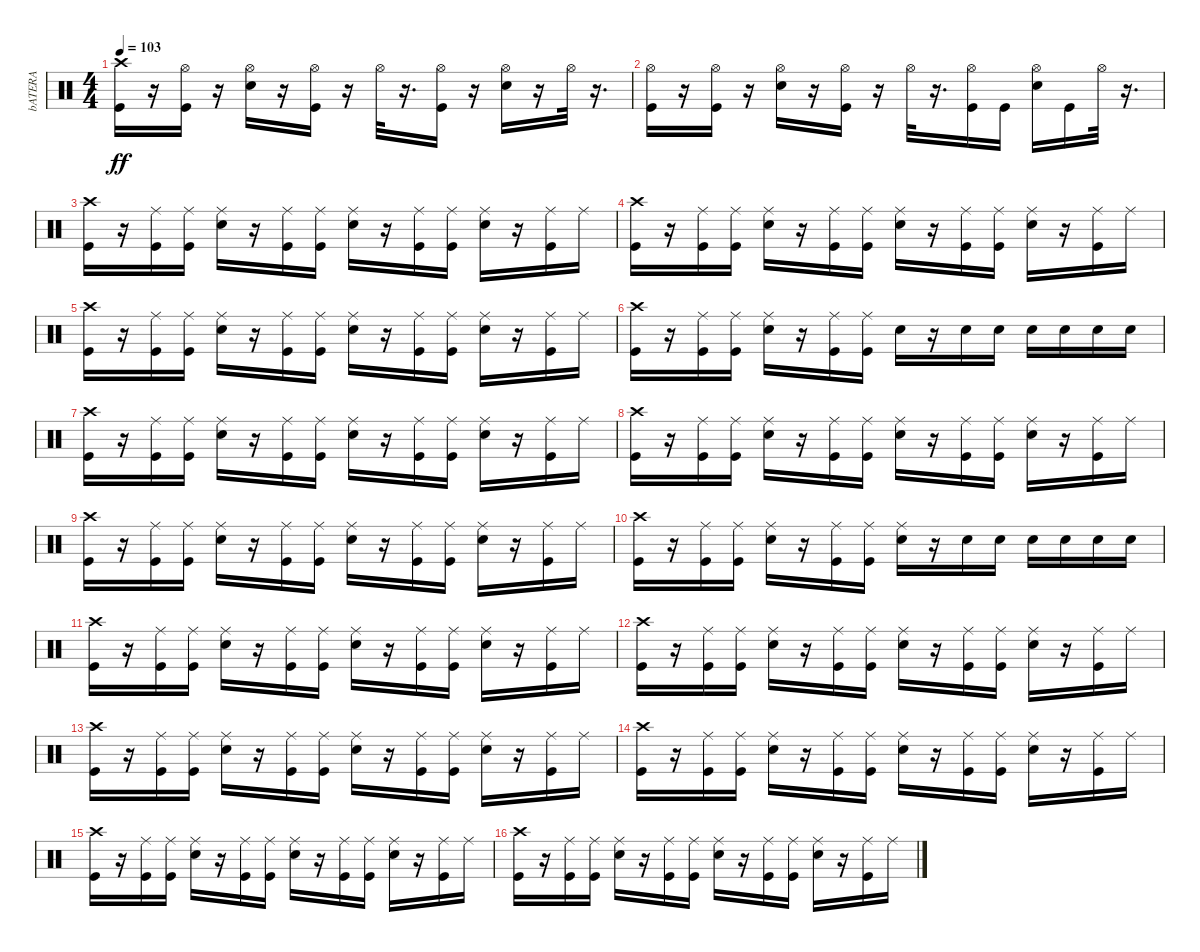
\track ("bATERA" "bATERA") {instrument percussion}
\staff {score}
\articulation defaults
\ts (4 4)
\tempo 103
\clef neutral
\ks c
("Kick (hit)" "Crash high (hit)").16{dy ff} r.16 ("Kick (hit)" "Hi-Hat (open)").16 r.16 ("Snare (hit) 2" "Hi-Hat (open)").16 r.16 ("Kick (hit)" "Hi-Hat (open)").16 r.16 "Hi-Hat (open)".32 r.16{d} ("Kick (hit)" "Hi-Hat (open)").16 r.16 ("Snare (hit) 2" "Hi-Hat (open)").16 r.16 "Hi-Hat (open)".32 r.16{d} |
("Kick (hit)" "Hi-Hat (open)").16 r.16 ("Kick (hit)" "Hi-Hat (open)").16 r.16 ("Snare (hit) 2" "Hi-Hat (open)").16 r.16 ("Kick (hit)" "Hi-Hat (open)").16 r.16 "Hi-Hat (open)".32 r.16{d} ("Kick (hit)" "Hi-Hat (open)").16 "Kick (hit)".16 ("Snare (hit) 2" "Hi-Hat (open)").16 "Kick (hit)".16 "Hi-Hat (open)".32 r.16{d} |
("Kick (hit)" "Crash high (hit)").16 r.16 ("Kick (hit)" "Ride (middle)").16 ("Kick (hit)" "Ride (middle)").16 ("Ride (middle)" "Snare (hit) 2").16 r.16 ("Kick (hit)" "Ride (middle)").16 ("Kick (hit)" "Ride (middle)").16 ("Ride (middle)" "Snare (hit) 2").16 r.16 ("Kick (hit)" "Ride (middle)").16 ("Kick (hit)" "Ride (middle)").16 ("Ride (middle)" "Snare (hit) 2").16 r.16 ("Kick (hit)" "Ride (middle)").16 "Ride (middle)".16 |
("Crash high (hit)" "Kick (hit)").16 r.16 ("Kick (hit)" "Ride (middle)").16 ("Kick (hit)" "Ride (middle)").16 ("Ride (middle)" "Snare (hit) 2").16 r.16 ("Kick (hit)" "Ride (middle)").16 ("Kick (hit)" "Ride (middle)").16 ("Ride (middle)" "Snare (hit) 2").16 r.16 ("Kick (hit)" "Ride (middle)").16 ("Kick (hit)" "Ride (middle)").16 ("Ride (middle)" "Snare (hit) 2").16 r.16 ("Kick (hit)" "Ride (middle)").16 "Ride (middle)".16 |
("Crash high (hit)" "Kick (hit)").16 r.16 ("Kick (hit)" "Ride (middle)").16 ("Kick (hit)" "Ride (middle)").16 ("Ride (middle)" "Snare (hit) 2").16 r.16 ("Kick (hit)" "Ride (middle)").16 ("Kick (hit)" "Ride (middle)").16 ("Ride (middle)" "Snare (hit) 2").16 r.16 ("Kick (hit)" "Ride (middle)").16 ("Kick (hit)" "Ride (middle)").16 ("Ride (middle)" "Snare (hit) 2").16 r.16 ("Kick (hit)" "Ride (middle)").16 "Ride (middle)".16 |
("Crash high (hit)" "Kick (hit)").16 r.16 ("Kick (hit)" "Ride (middle)").16 ("Kick (hit)" "Ride (middle)").16 ("Ride (middle)" "Snare (hit) 2").16 r.16 ("Kick (hit)" "Ride (middle)").16 ("Kick (hit)" "Ride (middle)").16 "Snare (hit) 2".16 r.16 "Snare (hit) 2".16 "Snare (hit) 2".16 "Snare (hit) 2".16 "Snare (hit) 2".16 "Snare (hit) 2".16 "Snare (hit) 2".16 |
("Kick (hit)" "Crash high (hit)").16 r.16 ("Kick (hit)" "Ride (middle)").16 ("Kick (hit)" "Ride (middle)").16 ("Ride (middle)" "Snare (hit) 2").16 r.16 ("Kick (hit)" "Ride (middle)").16 ("Kick (hit)" "Ride (middle)").16 ("Ride (middle)" "Snare (hit) 2").16 r.16 ("Kick (hit)" "Ride (middle)").16 ("Kick (hit)" "Ride (middle)").16 ("Ride (middle)" "Snare (hit) 2").16 r.16 ("Kick (hit)" "Ride (middle)").16 "Ride (middle)".16 |
("Kick (hit)" "Crash high (hit)").16 r.16 ("Kick (hit)" "Ride (middle)").16 ("Kick (hit)" "Ride (middle)").16 ("Ride (middle)" "Snare (hit) 2").16 r.16 ("Kick (hit)" "Ride (middle)").16 ("Kick (hit)" "Ride (middle)").16 ("Ride (middle)" "Snare (hit) 2").16 r.16 ("Kick (hit)" "Ride (middle)").16 ("Kick (hit)" "Ride (middle)").16 ("Ride (middle)" "Snare (hit) 2").16 r.16 ("Kick (hit)" "Ride (middle)").16 "Ride (middle)".16 |
("Crash high (hit)" "Kick (hit)").16 r.16 ("Kick (hit)" "Ride (middle)").16 ("Kick (hit)" "Ride (middle)").16 ("Ride (middle)" "Snare (hit) 2").16 r.16 ("Kick (hit)" "Ride (middle)").16 ("Kick (hit)" "Ride (middle)").16 ("Ride (middle)" "Snare (hit) 2").16 r.16 ("Kick (hit)" "Ride (middle)").16 ("Kick (hit)" "Ride (middle)").16 ("Ride (middle)" "Snare (hit) 2").16 r.16 ("Kick (hit)" "Ride (middle)").16 "Ride (middle)".16 |
("Kick (hit)" "Crash high (hit)").16 r.16 ("Kick (hit)" "Ride (middle)").16 ("Kick (hit)" "Ride (middle)").16 ("Ride (middle)" "Snare (hit) 2").16 r.16 ("Kick (hit)" "Ride (middle)").16 ("Kick (hit)" "Ride (middle)").16 ("Ride (middle)" "Snare (hit) 2").16 r.16 "Snare (hit) 2".16 "Snare (hit) 2".16 "Snare (hit) 2".16 "Snare (hit) 2".16 "Snare (hit) 2".16 "Snare (hit) 2".16 |
("Kick (hit)" "Crash high (hit)").16 r.16 ("Kick (hit)" "Ride (middle)").16 ("Kick (hit)" "Ride (middle)").16 ("Ride (middle)" "Snare (hit) 2").16 r.16 ("Kick (hit)" "Ride (middle)").16 ("Kick (hit)" "Ride (middle)").16 ("Ride (middle)" "Snare (hit) 2").16 r.16 ("Kick (hit)" "Ride (middle)").16 ("Kick (hit)" "Ride (middle)").16 ("Ride (middle)" "Snare (hit) 2").16 r.16 ("Kick (hit)" "Ride (middle)").16 "Ride (middle)".16 |
("Kick (hit)" "Crash high (hit)").16 r.16 ("Kick (hit)" "Ride (middle)").16 ("Kick (hit)" "Ride (middle)").16 ("Ride (middle)" "Snare (hit) 2").16 r.16 ("Kick (hit)" "Ride (middle)").16 ("Kick (hit)" "Ride (middle)").16 ("Ride (middle)" "Snare (hit) 2").16 r.16 ("Kick (hit)" "Ride (middle)").16 ("Kick (hit)" "Ride (middle)").16 ("Ride (middle)" "Snare (hit) 2").16 r.16 ("Kick (hit)" "Ride (middle)").16 "Ride (middle)".16 |
("Kick (hit)" "Crash high (hit)").16 r.16 ("Kick (hit)" "Ride (middle)").16 ("Kick (hit)" "Ride (middle)").16 ("Ride (middle)" "Snare (hit) 2").16 r.16 ("Kick (hit)" "Ride (middle)").16 ("Kick (hit)" "Ride (middle)").16 ("Ride (middle)" "Snare (hit) 2").16 r.16 ("Kick (hit)" "Ride (middle)").16 ("Kick (hit)" "Ride (middle)").16 ("Ride (middle)" "Snare (hit) 2").16 r.16 ("Kick (hit)" "Ride (middle)").16 "Ride (middle)".16 |
("Kick (hit)" "Crash high (hit)").16 r.16 ("Kick (hit)" "Ride (middle)").16 ("Kick (hit)" "Ride (middle)").16 ("Ride (middle)" "Snare (hit) 2").16 r.16 ("Kick (hit)" "Ride (middle)").16 ("Kick (hit)" "Ride (middle)").16 ("Ride (middle)" "Snare (hit) 2").16 r.16 ("Kick (hit)" "Ride (middle)").16 ("Kick (hit)" "Ride (middle)").16 ("Ride (middle)" "Snare (hit) 2").16 r.16 ("Kick (hit)" "Ride (middle)").16 "Ride (middle)".16 |
("Kick (hit)" "Crash high (hit)").16 r.16 ("Kick (hit)" "Ride (middle)").16 ("Kick (hit)" "Ride (middle)").16 ("Ride (middle)" "Snare (hit) 2").16 r.16 ("Kick (hit)" "Ride (middle)").16 ("Kick (hit)" "Ride (middle)").16 ("Ride (middle)" "Snare (hit) 2").16 r.16 ("Kick (hit)" "Ride (middle)").16 ("Kick (hit)" "Ride (middle)").16 ("Ride (middle)" "Snare (hit) 2").16 r.16 ("Kick (hit)" "Ride (middle)").16 "Ride (middle)".16 |
("Kick (hit)" "Crash high (hit)").16 r.16 ("Kick (hit)" "Ride (middle)").16 ("Kick (hit)" "Ride (middle)").16 ("Ride (middle)" "Snare (hit) 2").16 r.16 ("Kick (hit)" "Ride (middle)").16 ("Kick (hit)" "Ride (middle)").16 ("Ride (middle)" "Snare (hit) 2").16 r.16 ("Kick (hit)" "Ride (middle)").16 ("Kick (hit)" "Ride (middle)").16 ("Ride (middle)" "Snare (hit) 2").16 r.16 ("Kick (hit)" "Ride (middle)").16 "Ride (middle)".16
